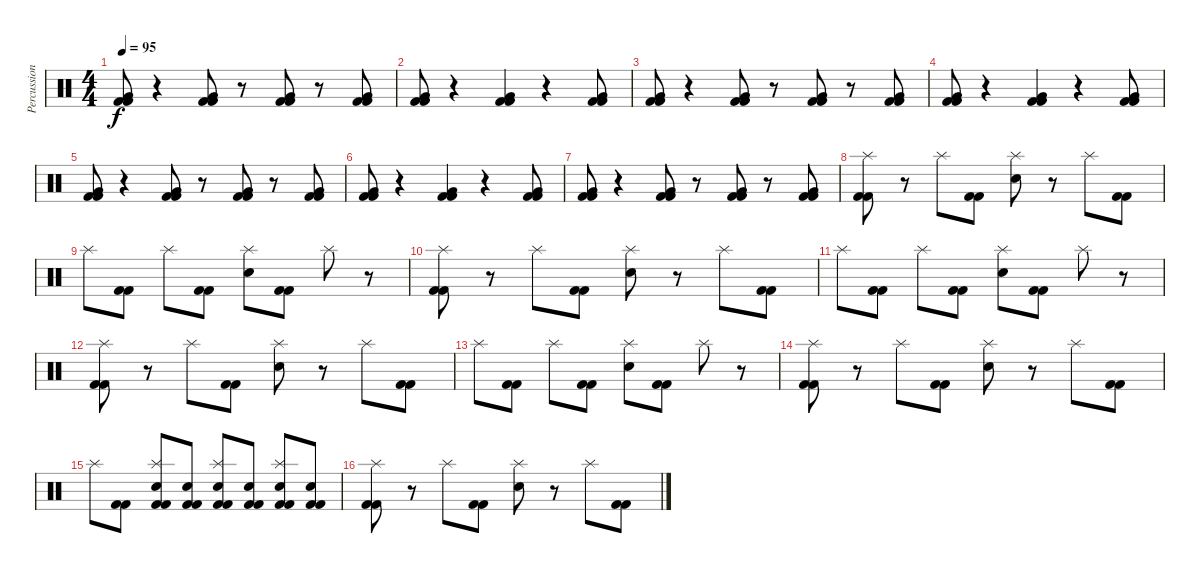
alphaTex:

\track ("Percussion" "Percussion") {instrument percussion}
\staff {score}
\articulation defaults
\ts (4 4)
\tempo 95
\clef neutral
\ks c
("Very Low Tom (hit)" "Kick (hit) 2" "Kick (hit) 2").8{dy f} r.4 ("Very Low Tom (hit)" "Kick (hit) 2" "Kick (hit) 2").8 r.8 ("Very Low Tom (hit)" "Kick (hit) 2" "Kick (hit) 2").8 r.8 ("Very Low Tom (hit)" "Kick (hit) 2" "Kick (hit) 2").8 |
("Very Low Tom (hit)" "Kick (hit) 2" "Kick (hit) 2").8 r.4 ("Very Low Tom (hit)" "Kick (hit) 2" "Kick (hit) 2").4 r.4 ("Very Low Tom (hit)" "Kick (hit) 2" "Kick (hit) 2").8 |
("Very Low Tom (hit)" "Kick (hit) 2" "Kick (hit) 2").8 r.4 ("Very Low Tom (hit)" "Kick (hit) 2" "Kick (hit) 2").8 r.8 ("Very Low Tom (hit)" "Kick (hit) 2" "Kick (hit) 2").8 r.8 ("Very Low Tom (hit)" "Kick (hit) 2" "Kick (hit) 2").8 |
("Very Low Tom (hit)" "Kick (hit) 2" "Kick (hit) 2").8 r.4 ("Very Low Tom (hit)" "Kick (hit) 2" "Kick (hit) 2").4 r.4 ("Very Low Tom (hit)" "Kick (hit) 2" "Kick (hit) 2").8 |
("Very Low Tom (hit)" "Kick (hit) 2" "Kick (hit) 2").8 r.4 ("Very Low Tom (hit)" "Kick (hit) 2" "Kick (hit) 2").8 r.8 ("Very Low Tom (hit)" "Kick (hit) 2" "Kick (hit) 2").8 r.8 ("Very Low Tom (hit)" "Kick (hit) 2" "Kick (hit) 2").8 |
("Very Low Tom (hit)" "Kick (hit) 2" "Kick (hit) 2").8 r.4 ("Very Low Tom (hit)" "Kick (hit) 2" "Kick (hit) 2").4 r.4 ("Very Low Tom (hit)" "Kick (hit) 2" "Kick (hit) 2").8 |
("Very Low Tom (hit)" "Kick (hit) 2" "Kick (hit) 2").8 r.4 ("Very Low Tom (hit)" "Kick (hit) 2" "Kick (hit) 2").8 r.8 ("Very Low Tom (hit)" "Kick (hit) 2" "Kick (hit) 2").8 r.8 ("Very Low Tom (hit)" "Kick (hit) 2" "Kick (hit) 2").8 |
("Splash (hit)" "Kick (hit) 2" "Kick (hit) 2").8 r.8 "Splash (hit)".8 ("Kick (hit) 2" "Kick (hit) 2").8 ("Splash (hit)" "Electric Snare (hit)").8 r.8 "Splash (hit)".8 ("Kick (hit) 2" "Kick (hit) 2").8 |
"Splash (hit)".8 ("Kick (hit) 2" "Kick (hit) 2").8 "Splash (hit)".8 ("Kick (hit) 2" "Kick (hit) 2").8 ("Splash (hit)" "Electric Snare (hit)").8 ("Kick (hit) 2" "Kick (hit) 2").8 "Splash (hit)".8 r.8 |
("Splash (hit)" "Kick (hit) 2" "Kick (hit) 2").8 r.8 "Splash (hit)".8 ("Kick (hit) 2" "Kick (hit) 2").8 ("Splash (hit)" "Electric Snare (hit)").8 r.8 "Splash (hit)".8 ("Kick (hit) 2" "Kick (hit) 2").8 |
"Splash (hit)".8 ("Kick (hit) 2" "Kick (hit) 2").8 "Splash (hit)".8 ("Kick (hit) 2" "Kick (hit) 2").8 ("Splash (hit)" "Electric Snare (hit)").8 ("Kick (hit) 2" "Kick (hit) 2").8 "Splash (hit)".8 r.8 |
("Splash (hit)" "Kick (hit) 2" "Kick (hit) 2").8 r.8 "Splash (hit)".8 ("Kick (hit) 2" "Kick (hit) 2").8 ("Splash (hit)" "Electric Snare (hit)").8 r.8 "Splash (hit)".8 ("Kick (hit) 2" "Kick (hit) 2").8 |
"Splash (hit)".8 ("Kick (hit) 2" "Kick (hit) 2").8 "Splash (hit)".8 ("Kick (hit) 2" "Kick (hit) 2").8 ("Splash (hit)" "Electric Snare (hit)").8 ("Kick (hit) 2" "Kick (hit) 2").8 "Splash (hit)".8 r.8 |
("Splash (hit)" "Kick (hit) 2" "Kick (hit) 2").8 r.8 "Splash (hit)".8 ("Kick (hit) 2" "Kick (hit) 2").8 ("Splash (hit)" "Electric Snare (hit)").8 r.8 "Splash (hit)".8 ("Kick (hit) 2" "Kick (hit) 2").8 |
"Splash (hit)".8 ("Kick (hit) 2" "Kick (hit) 2").8 ("Splash (hit)" "Electric Snare (hit)" "Kick (hit) 2" "Kick (hit) 2").8 ("Electric Snare (hit)" "Kick (hit) 2" "Kick (hit) 2").8 ("Splash (hit)" "Electric Snare (hit)" "Kick (hit) 2" "Kick (hit) 2").8 ("Electric Snare (hit)" "Kick (hit) 2" "Kick (hit) 2").8 ("Splash (hit)" "Electric Snare (hit)" "Kick (hit) 2" "Kick (hit) 2").8 ("Electric Snare (hit)" "Kick (hit) 2" "Kick (hit) 2").8 |
("Splash (hit)" "Kick (hit) 2" "Kick (hit) 2").8 r.8 "Splash (hit)".8 ("Kick (hit) 2" "Kick (hit) 2").8 ("Splash (hit)" "Electric Snare (hit)").8 r.8 "Splash (hit)".8 ("Kick (hit) 2" "Kick (hit) 2").8
